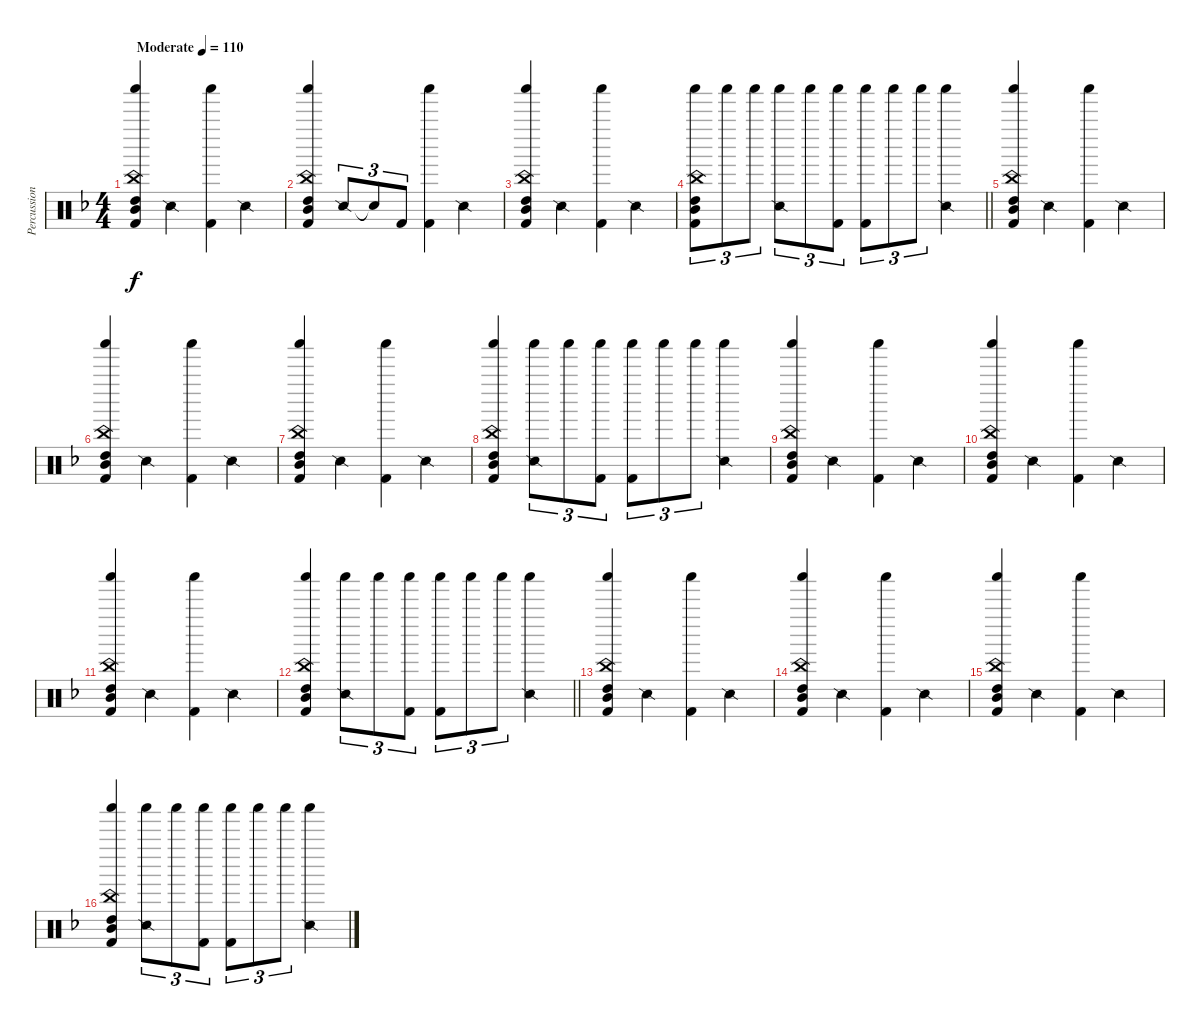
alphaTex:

\track ("Percussion" "Percussion") {instrument percussion}
\staff {score}
\articulation defaults
\ts (4 4)
\section ("" "")
\tempo (110 "Moderate")
\clef neutral
\ks f
("Mid Tom (hit)" "China (hit)" "Shaker (hit)" "High Tom (hit)" "Kick (hit) 2").4{dy f} "Snare (side stick) 2".4 ("Shaker (hit)" "Kick (hit) 2").4 "Snare (side stick) 2".4 |
("Mid Tom (hit)" "China (hit)" "Shaker (hit)" "High Tom (hit)" "Kick (hit) 2").4 "Snare (side stick) 2".8{tu (3 2)} "Snare (hit)"{t}.8{tu (3 2)} "Kick (hit) 2".8{tu (3 2)} ("Shaker (hit)" "Kick (hit) 2").4 "Snare (side stick) 2".4 |
("Mid Tom (hit)" "China (hit)" "Shaker (hit)" "High Tom (hit)" "Kick (hit) 2").4 "Snare (side stick) 2".4 ("Shaker (hit)" "Kick (hit) 2").4 "Snare (side stick) 2".4 |
\barLineRight lightlight
("Mid Tom (hit)" "China (hit)" "Shaker (hit)" "High Tom (hit)" "Kick (hit) 2").8{tu (3 2)} "Shaker (hit)".8{tu (3 2)} "Shaker (hit)".8{tu (3 2)} ("Snare (side stick) 2" "Shaker (hit)").8{tu (3 2)} "Shaker (hit)".8{tu (3 2)} ("Shaker (hit)" "Kick (hit) 2").8{tu (3 2)} ("Shaker (hit)" "Kick (hit) 2").8{tu (3 2)} "Shaker (hit)".8{tu (3 2)} "Shaker (hit)".8{tu (3 2)} ("Snare (side stick) 2" "Shaker (hit)").4 |
\section ("" "")
("Mid Tom (hit)" "China (hit)" "Shaker (hit)" "High Tom (hit)" "Kick (hit) 2").4 "Snare (side stick) 2".4 ("Shaker (hit)" "Kick (hit) 2").4 "Snare (side stick) 2".4 |
("Mid Tom (hit)" "China (hit)" "Shaker (hit)" "High Tom (hit)" "Kick (hit) 2").4 "Snare (side stick) 2".4 ("Shaker (hit)" "Kick (hit) 2").4 "Snare (side stick) 2".4 |
("Mid Tom (hit)" "China (hit)" "Shaker (hit)" "High Tom (hit)" "Kick (hit) 2").4 "Snare (side stick) 2".4 ("Shaker (hit)" "Kick (hit) 2").4 "Snare (side stick) 2".4 |
("Mid Tom (hit)" "China (hit)" "Shaker (hit)" "High Tom (hit)" "Kick (hit) 2").4 ("Snare (side stick) 2" "Shaker (hit)").8{tu (3 2)} "Shaker (hit)".8{tu (3 2)} ("Shaker (hit)" "Kick (hit) 2").8{tu (3 2)} ("Shaker (hit)" "Kick (hit) 2").8{tu (3 2)} "Shaker (hit)".8{tu (3 2)} "Shaker (hit)".8{tu (3 2)} ("Snare (side stick) 2" "Shaker (hit)").4 |
("Mid Tom (hit)" "China (hit)" "Shaker (hit)" "High Tom (hit)" "Kick (hit) 2").4 "Snare (side stick) 2".4 ("Shaker (hit)" "Kick (hit) 2").4 "Snare (side stick) 2".4 |
("Mid Tom (hit)" "China (hit)" "Shaker (hit)" "High Tom (hit)" "Kick (hit) 2").4 "Snare (side stick) 2".4 ("Shaker (hit)" "Kick (hit) 2").4 "Snare (side stick) 2".4 |
("Mid Tom (hit)" "China (hit)" "Shaker (hit)" "High Tom (hit)" "Kick (hit) 2").4 "Snare (side stick) 2".4 ("Shaker (hit)" "Kick (hit) 2").4 "Snare (side stick) 2".4 |
\barLineRight lightlight
("Mid Tom (hit)" "China (hit)" "Shaker (hit)" "High Tom (hit)" "Kick (hit) 2").4 ("Snare (side stick) 2" "Shaker (hit)").8{tu (3 2)} "Shaker (hit)".8{tu (3 2)} ("Shaker (hit)" "Kick (hit) 2").8{tu (3 2)} ("Shaker (hit)" "Kick (hit) 2").8{tu (3 2)} "Shaker (hit)".8{tu (3 2)} "Shaker (hit)".8{tu (3 2)} ("Snare (side stick) 2" "Shaker (hit)").4 |
\section ("" "")
("Mid Tom (hit)" "China (hit)" "Shaker (hit)" "High Tom (hit)" "Kick (hit) 2").4 "Snare (side stick) 2".4 ("Shaker (hit)" "Kick (hit) 2").4 "Snare (side stick) 2".4 |
("Mid Tom (hit)" "China (hit)" "Shaker (hit)" "High Tom (hit)" "Kick (hit) 2").4 "Snare (side stick) 2".4 ("Shaker (hit)" "Kick (hit) 2").4 "Snare (side stick) 2".4 |
("Mid Tom (hit)" "China (hit)" "Shaker (hit)" "High Tom (hit)" "Kick (hit) 2").4 "Snare (side stick) 2".4 ("Shaker (hit)" "Kick (hit) 2").4 "Snare (side stick) 2".4 |
("Mid Tom (hit)" "China (hit)" "Shaker (hit)" "High Tom (hit)" "Kick (hit) 2").4 ("Snare (side stick) 2" "Shaker (hit)").8{tu (3 2)} "Shaker (hit)".8{tu (3 2)} ("Shaker (hit)" "Kick (hit) 2").8{tu (3 2)} ("Shaker (hit)" "Kick (hit) 2").8{tu (3 2)} "Shaker (hit)".8{tu (3 2)} "Shaker (hit)".8{tu (3 2)} ("Snare (side stick) 2" "Shaker (hit)").4
